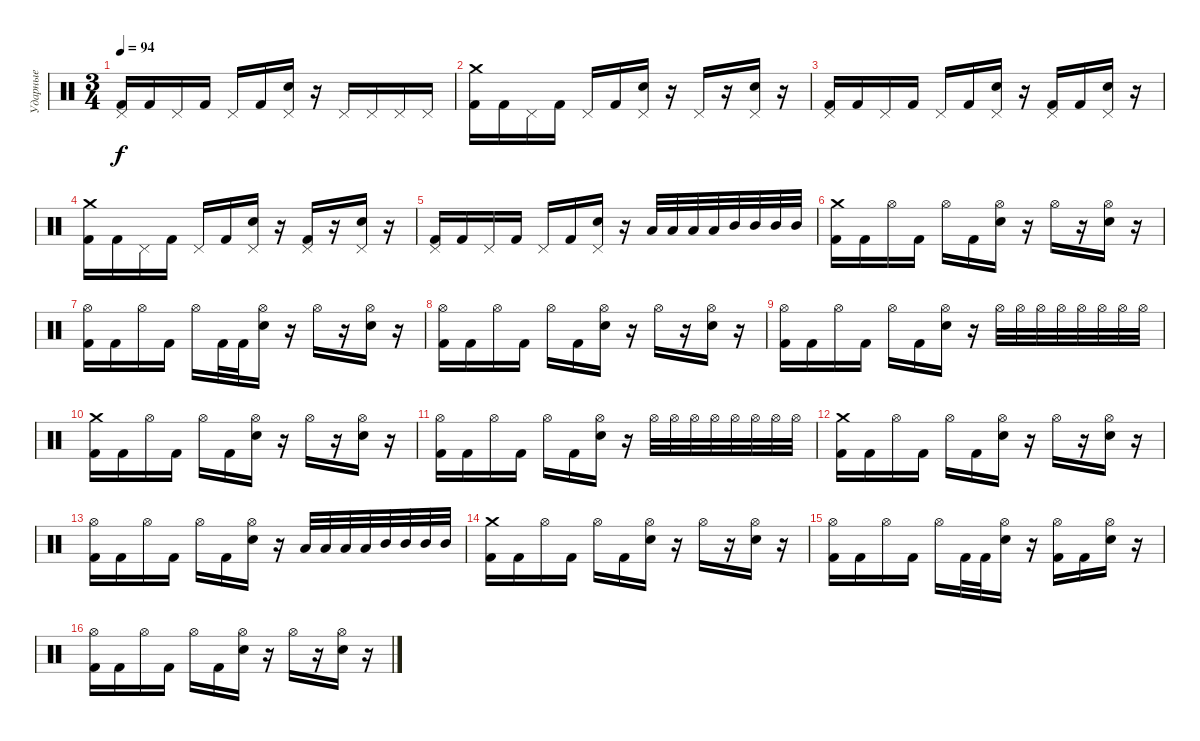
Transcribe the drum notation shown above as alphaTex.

\track ("Ударные" "Ударные") {instrument percussion}
\staff {score}
\articulation defaults
\ts (3 4)
\tempo 94
\clef neutral
\ks c
("Pedal Hi-Hat (hit)" "Kick (hit) 2").16{dy f} "Kick (hit) 2".16 "Pedal Hi-Hat (hit)".16 "Kick (hit) 2".16 "Pedal Hi-Hat (hit)".16 "Kick (hit) 2".16 ("Pedal Hi-Hat (hit)" "Electric Snare (hit)").16 r.16 "Pedal Hi-Hat (hit)".16 "Pedal Hi-Hat (hit)".16 "Pedal Hi-Hat (hit)".16 "Pedal Hi-Hat (hit)".16 |
("Crash medium (hit)" "Kick (hit) 2").16 "Kick (hit) 2".16 "Pedal Hi-Hat (hit)".16 "Kick (hit) 2".16 "Pedal Hi-Hat (hit)".16 "Kick (hit) 2".16 ("Pedal Hi-Hat (hit)" "Electric Snare (hit)").16 r.16 "Pedal Hi-Hat (hit)".16 r.16 ("Pedal Hi-Hat (hit)" "Electric Snare (hit)").16 r.16 |
("Pedal Hi-Hat (hit)" "Kick (hit) 2").16 "Kick (hit) 2".16 "Pedal Hi-Hat (hit)".16 "Kick (hit) 2".16 "Pedal Hi-Hat (hit)".16 "Kick (hit) 2".16 ("Pedal Hi-Hat (hit)" "Electric Snare (hit)").16 r.16 ("Pedal Hi-Hat (hit)" "Kick (hit) 2").16 "Kick (hit) 2".16 ("Pedal Hi-Hat (hit)" "Electric Snare (hit)").16 r.16 |
("Crash medium (hit)" "Kick (hit) 2").16 "Kick (hit) 2".16 "Pedal Hi-Hat (hit)".16 "Kick (hit) 2".16 "Pedal Hi-Hat (hit)".16 "Kick (hit) 2".16 ("Pedal Hi-Hat (hit)" "Electric Snare (hit)").16 r.16 ("Pedal Hi-Hat (hit)" "Kick (hit) 2").16 r.16 ("Pedal Hi-Hat (hit)" "Electric Snare (hit)").16 r.16 |
("Pedal Hi-Hat (hit)" "Kick (hit) 2").16 "Kick (hit) 2".16 "Pedal Hi-Hat (hit)".16 "Kick (hit) 2".16 "Pedal Hi-Hat (hit)".16 "Kick (hit) 2".16 ("Pedal Hi-Hat (hit)" "Electric Snare (hit)").16 r.16 "Low Tom (hit)".32 "Low Tom (hit)".32 "Low Tom (hit)".32 "Low Tom (hit)".32 "Mid Tom (hit)".32 "Mid Tom (hit)".32 "Mid Tom (hit)".32 "Mid Tom (hit)".32 |
("Crash medium (hit)" "Kick (hit) 2").16 "Kick (hit) 2".16 "Hi-Hat (open)".16 "Kick (hit) 2".16 "Hi-Hat (open)".16 "Kick (hit) 2".16 ("Hi-Hat (open)" "Electric Snare (hit)").16 r.16 "Hi-Hat (open)".16 r.16 ("Hi-Hat (open)" "Electric Snare (hit)").16 r.16 |
("Hi-Hat (open)" "Kick (hit) 2").16 "Kick (hit) 2".16 "Hi-Hat (open)".16 "Kick (hit) 2".16 "Hi-Hat (open)".16 "Kick (hit) 2".32 "Kick (hit) 2".32 ("Hi-Hat (open)" "Electric Snare (hit)").16 r.16 "Hi-Hat (open)".16 r.16 ("Hi-Hat (open)" "Electric Snare (hit)").16 r.16 |
("Hi-Hat (open)" "Kick (hit) 2").16 "Kick (hit) 2".16 "Hi-Hat (open)".16 "Kick (hit) 2".16 "Hi-Hat (open)".16 "Kick (hit) 2".16 ("Hi-Hat (open)" "Electric Snare (hit)").16 r.16 "Hi-Hat (open)".16 r.16 ("Hi-Hat (open)" "Electric Snare (hit)").16 r.16 |
("Hi-Hat (open)" "Kick (hit) 2").16 "Kick (hit) 2".16 "Hi-Hat (open)".16 "Kick (hit) 2".16 "Hi-Hat (open)".16 "Kick (hit) 2".16 ("Hi-Hat (open)" "Electric Snare (hit)").16 r.16 "Hi-Hat (open)".32 "Hi-Hat (open)".32 "Hi-Hat (open)".32 "Hi-Hat (open)".32 "Hi-Hat (open)".32 "Hi-Hat (open)".32 "Hi-Hat (open)".32 "Hi-Hat (open)".32 |
("Crash medium (hit)" "Kick (hit) 2").16 "Kick (hit) 2".16 "Hi-Hat (open)".16 "Kick (hit) 2".16 "Hi-Hat (open)".16 "Kick (hit) 2".16 ("Hi-Hat (open)" "Electric Snare (hit)").16 r.16 "Hi-Hat (open)".16 r.16 ("Hi-Hat (open)" "Electric Snare (hit)").16 r.16 |
("Hi-Hat (open)" "Kick (hit) 2").16 "Kick (hit) 2".16 "Hi-Hat (open)".16 "Kick (hit) 2".16 "Hi-Hat (open)".16 "Kick (hit) 2".16 ("Hi-Hat (open)" "Electric Snare (hit)").16 r.16 "Hi-Hat (open)".32 "Hi-Hat (open)".32 "Hi-Hat (open)".32 "Hi-Hat (open)".32 "Hi-Hat (open)".32 "Hi-Hat (open)".32 "Hi-Hat (open)".32 "Hi-Hat (open)".32 |
("Crash medium (hit)" "Kick (hit) 2").16 "Kick (hit) 2".16 "Hi-Hat (open)".16 "Kick (hit) 2".16 "Hi-Hat (open)".16 "Kick (hit) 2".16 ("Hi-Hat (open)" "Electric Snare (hit)").16 r.16 "Hi-Hat (open)".16 r.16 ("Hi-Hat (open)" "Electric Snare (hit)").16 r.16 |
("Hi-Hat (open)" "Kick (hit) 2").16 "Kick (hit) 2".16 "Hi-Hat (open)".16 "Kick (hit) 2".16 "Hi-Hat (open)".16 "Kick (hit) 2".16 ("Hi-Hat (open)" "Electric Snare (hit)").16 r.16 "Low Tom (hit)".32 "Low Tom (hit)".32 "Low Tom (hit)".32 "Low Tom (hit)".32 "Mid Tom (hit)".32 "Mid Tom (hit)".32 "Mid Tom (hit)".32 "Mid Tom (hit)".32 |
("Crash medium (hit)" "Kick (hit) 2").16 "Kick (hit) 2".16 "Hi-Hat (open)".16 "Kick (hit) 2".16 "Hi-Hat (open)".16 "Kick (hit) 2".16 ("Hi-Hat (open)" "Electric Snare (hit)").16 r.16 "Hi-Hat (open)".16 r.16 ("Hi-Hat (open)" "Electric Snare (hit)").16 r.16 |
("Hi-Hat (open)" "Kick (hit) 2").16 "Kick (hit) 2".16 "Hi-Hat (open)".16 "Kick (hit) 2".16 "Hi-Hat (open)".16 "Kick (hit) 2".32 "Kick (hit) 2".32 ("Hi-Hat (open)" "Electric Snare (hit)").16 r.16 ("Hi-Hat (open)" "Kick (hit) 2").16 "Kick (hit) 2".16 ("Hi-Hat (open)" "Electric Snare (hit)").16 r.16 |
("Hi-Hat (open)" "Kick (hit) 2").16 "Kick (hit) 2".16 "Hi-Hat (open)".16 "Kick (hit) 2".16 "Hi-Hat (open)".16 "Kick (hit) 2".16 ("Hi-Hat (open)" "Electric Snare (hit)").16 r.16 "Hi-Hat (open)".16 r.16 ("Hi-Hat (open)" "Electric Snare (hit)").16 r.16
